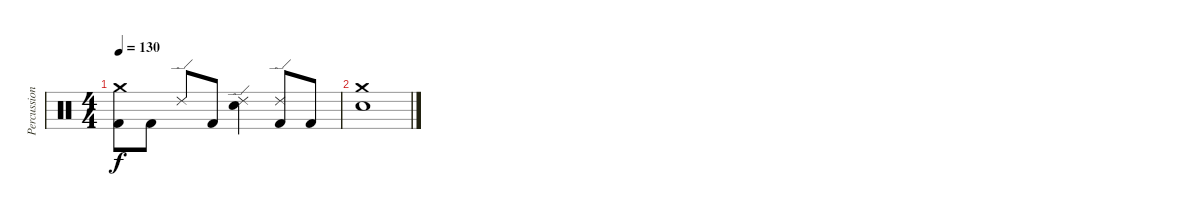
\track ("Percussion" "Percussion") {instrument percussion}
\staff {score}
\articulation defaults
\ts (4 4)
\tempo 130
\clef neutral
\ks c
("Crash medium (hit)" "Kick (hit) 2").8{dy f} "Kick (hit) 2".8 "Ride (edge) 2".8 "Kick (hit) 2".8 ("Ride (edge) 2" "Electric Snare (hit)").4 ("Ride (edge) 2" "Kick (hit) 2").8 "Kick (hit) 2".8 |
("Electric Snare (hit)" "Crash medium (hit)").1
